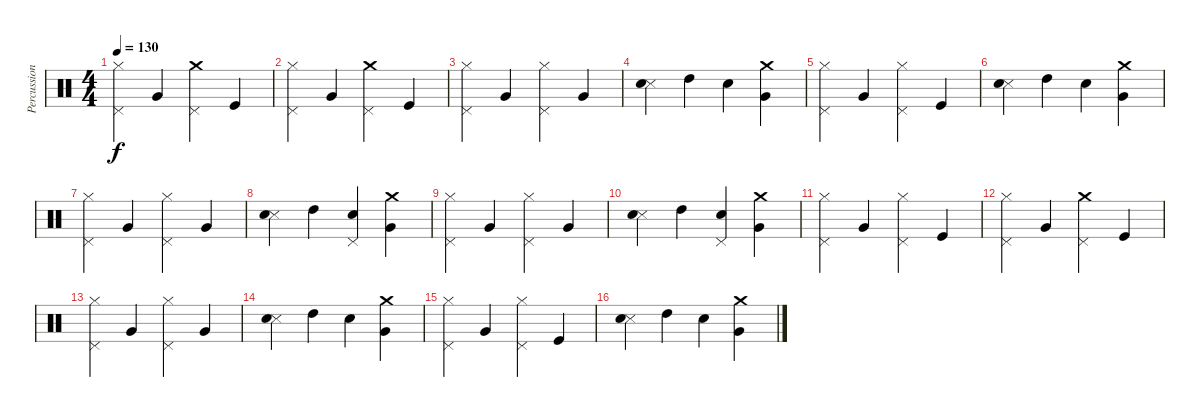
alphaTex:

\track ("Percussions" "Percussion") {instrument percussion}
\staff {score}
\articulation defaults
\ts (4 4)
\tempo 130
\clef neutral
\ks c
("Hi-Hat (closed)" "Pedal Hi-Hat (hit)").4{dy f} "Very Low Tom (hit)".4 ("Crash medium (hit)" "Pedal Hi-Hat (hit)").4 "Kick (hit)".4 |
("Hi-Hat (closed)" "Pedal Hi-Hat (hit)").4 "Very Low Tom (hit)".4 ("Crash medium (hit)" "Pedal Hi-Hat (hit)").4 "Kick (hit)".4 |
("Hi-Hat (closed)" "Pedal Hi-Hat (hit)").4 "Very Low Tom (hit)".4 ("Hi-Hat (closed)" "Pedal Hi-Hat (hit)").4 "Very Low Tom (hit)".4 |
("Snare (side stick) 3" "Snare (hit) 2").4 "High Tom (hit)".4 "Electric Snare (hit)".4 ("Crash medium (hit)" "Very Low Tom (hit)").4 |
("Hi-Hat (closed)" "Pedal Hi-Hat (hit)").4 "Very Low Tom (hit)".4 ("Hi-Hat (closed)" "Pedal Hi-Hat (hit)").4 "Kick (hit)".4 |
("Snare (side stick) 3" "Snare (hit) 2").4 "High Tom (hit)".4 "Electric Snare (hit)".4 ("Crash medium (hit)" "Very Low Tom (hit)").4 |
("Hi-Hat (closed)" "Pedal Hi-Hat (hit)").4 "Very Low Tom (hit)".4 ("Hi-Hat (closed)" "Pedal Hi-Hat (hit)").4 "Very Low Tom (hit)".4 |
("Snare (side stick) 3" "Snare (hit) 2").4 "High Tom (hit)".4 ("Electric Snare (hit)" "Pedal Hi-Hat (hit)").4 ("Crash medium (hit)" "Very Low Tom (hit)").4 |
("Hi-Hat (closed)" "Pedal Hi-Hat (hit)").4 "Very Low Tom (hit)".4 ("Hi-Hat (closed)" "Pedal Hi-Hat (hit)").4 "Very Low Tom (hit)".4 |
("Snare (side stick) 3" "Snare (hit) 2").4 "High Tom (hit)".4 ("Electric Snare (hit)" "Pedal Hi-Hat (hit)").4 ("Crash medium (hit)" "Very Low Tom (hit)").4 |
("Hi-Hat (closed)" "Pedal Hi-Hat (hit)").4 "Very Low Tom (hit)".4 ("Hi-Hat (closed)" "Pedal Hi-Hat (hit)").4 "Kick (hit)".4 |
("Hi-Hat (closed)" "Pedal Hi-Hat (hit)").4 "Very Low Tom (hit)".4 ("Crash medium (hit)" "Pedal Hi-Hat (hit)").4 "Kick (hit)".4 |
("Hi-Hat (closed)" "Pedal Hi-Hat (hit)").4 "Very Low Tom (hit)".4 ("Hi-Hat (closed)" "Pedal Hi-Hat (hit)").4 "Very Low Tom (hit)".4 |
("Snare (side stick) 3" "Snare (hit) 2").4 "High Tom (hit)".4 "Electric Snare (hit)".4 ("Crash medium (hit)" "Very Low Tom (hit)").4 |
("Hi-Hat (closed)" "Pedal Hi-Hat (hit)").4 "Very Low Tom (hit)".4 ("Hi-Hat (closed)" "Pedal Hi-Hat (hit)").4 "Kick (hit)".4 |
("Snare (side stick) 3" "Snare (hit) 2").4 "High Tom (hit)".4 "Electric Snare (hit)".4 ("Crash medium (hit)" "Very Low Tom (hit)").4
